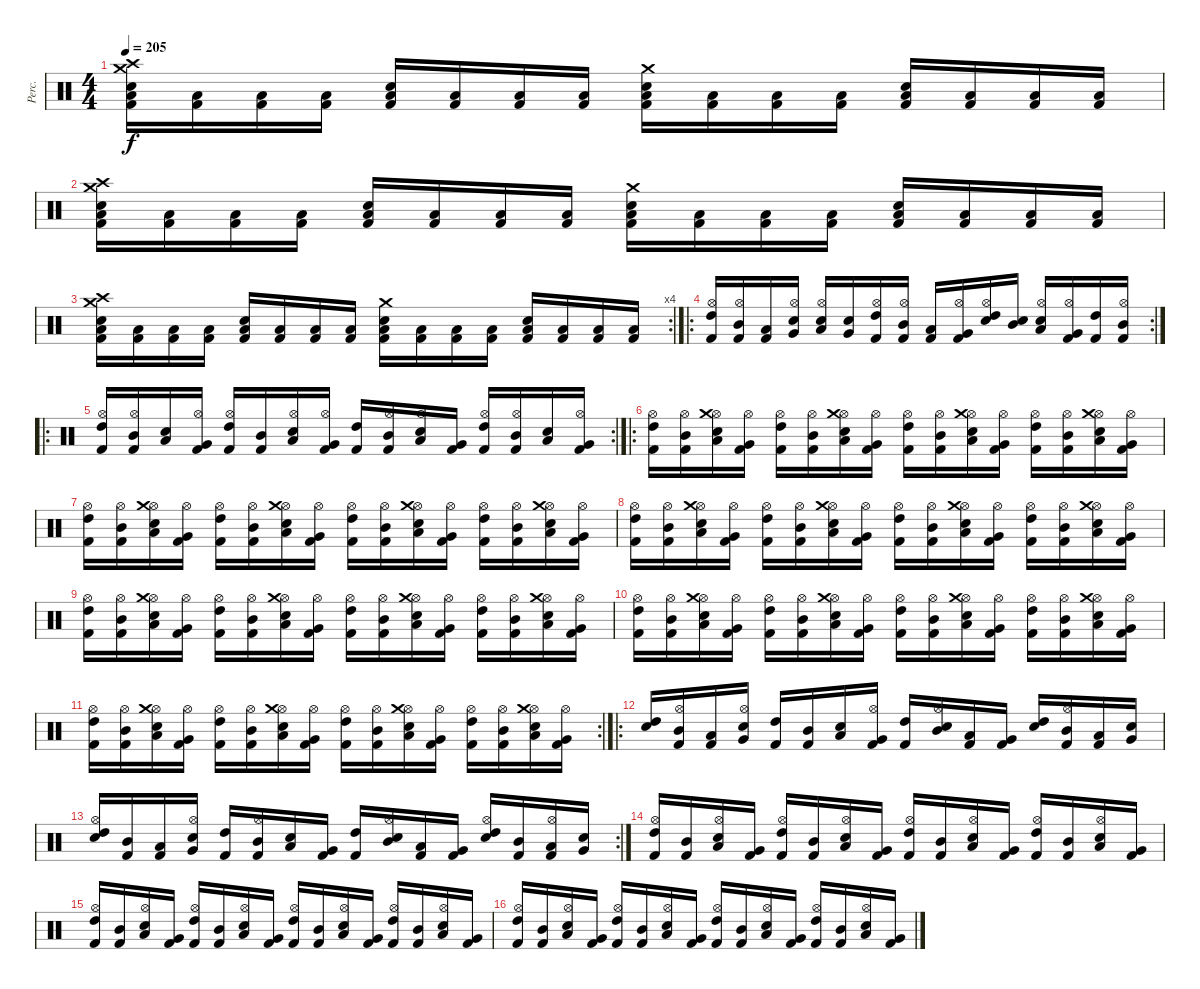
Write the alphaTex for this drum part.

\track ("Perc." "Perc.") {instrument percussion}
\staff {score}
\articulation defaults
\ts (4 4)
\tempo 205
\clef neutral
\ks c
("Crash high (hit)" "Crash medium (hit)" "Snare (hit) 2" "Low Floor Tom (hit)" "Kick (hit) 2").16{dy f} ("Low Floor Tom (hit)" "Kick (hit) 2").16 ("Low Floor Tom (hit)" "Kick (hit) 2").16 ("Low Floor Tom (hit)" "Kick (hit) 2").16 ("Snare (hit) 2" "Low Floor Tom (hit)" "Kick (hit) 2").16 ("Low Floor Tom (hit)" "Kick (hit) 2").16 ("Low Floor Tom (hit)" "Kick (hit) 2").16 ("Low Floor Tom (hit)" "Kick (hit) 2").16 ("Crash medium (hit)" "Snare (hit) 2" "Low Floor Tom (hit)" "Kick (hit) 2").16 ("Low Floor Tom (hit)" "Kick (hit) 2").16 ("Low Floor Tom (hit)" "Kick (hit) 2").16 ("Low Floor Tom (hit)" "Kick (hit) 2").16 ("Snare (hit) 2" "Low Floor Tom (hit)" "Kick (hit) 2").16 ("Low Floor Tom (hit)" "Kick (hit) 2").16 ("Low Floor Tom (hit)" "Kick (hit) 2").16 ("Low Floor Tom (hit)" "Kick (hit) 2").16 |
("Crash high (hit)" "Crash medium (hit)" "Snare (hit) 2" "Low Floor Tom (hit)" "Kick (hit) 2").16 ("Low Floor Tom (hit)" "Kick (hit) 2").16 ("Low Floor Tom (hit)" "Kick (hit) 2").16 ("Low Floor Tom (hit)" "Kick (hit) 2").16 ("Snare (hit) 2" "Low Floor Tom (hit)" "Kick (hit) 2").16 ("Low Floor Tom (hit)" "Kick (hit) 2").16 ("Low Floor Tom (hit)" "Kick (hit) 2").16 ("Low Floor Tom (hit)" "Kick (hit) 2").16 ("Crash medium (hit)" "Snare (hit) 2" "Low Floor Tom (hit)" "Kick (hit) 2").16 ("Low Floor Tom (hit)" "Kick (hit) 2").16 ("Low Floor Tom (hit)" "Kick (hit) 2").16 ("Low Floor Tom (hit)" "Kick (hit) 2").16 ("Snare (hit) 2" "Low Floor Tom (hit)" "Kick (hit) 2").16 ("Low Floor Tom (hit)" "Kick (hit) 2").16 ("Low Floor Tom (hit)" "Kick (hit) 2").16 ("Low Floor Tom (hit)" "Kick (hit) 2").16 |
\rc 4
("Crash high (hit)" "Crash medium (hit)" "Snare (hit) 2" "Low Floor Tom (hit)" "Kick (hit) 2").16 ("Low Floor Tom (hit)" "Kick (hit) 2").16 ("Low Floor Tom (hit)" "Kick (hit) 2").16 ("Low Floor Tom (hit)" "Kick (hit) 2").16 ("Snare (hit) 2" "Low Floor Tom (hit)" "Kick (hit) 2").16 ("Low Floor Tom (hit)" "Kick (hit) 2").16 ("Low Floor Tom (hit)" "Kick (hit) 2").16 ("Low Floor Tom (hit)" "Kick (hit) 2").16 ("Crash medium (hit)" "Snare (hit) 2" "Low Floor Tom (hit)" "Kick (hit) 2").16 ("Low Floor Tom (hit)" "Kick (hit) 2").16 ("Low Floor Tom (hit)" "Kick (hit) 2").16 ("Low Floor Tom (hit)" "Kick (hit) 2").16 ("Snare (hit) 2" "Low Floor Tom (hit)" "Kick (hit) 2").16 ("Low Floor Tom (hit)" "Kick (hit) 2").16 ("Low Floor Tom (hit)" "Kick (hit) 2").16 ("Low Floor Tom (hit)" "Kick (hit) 2").16 |
\ro
\rc 2
("Hi-Hat (open)" "High Tom (hit)" "Kick (hit) 2").16 ("Hi-Hat (open)" "Mid Tom (hit)" "Kick (hit) 2").16 ("Low Tom (hit)" "Kick (hit) 2").16 ("Hi-Hat (open)" "Very Low Tom (hit)" "Snare (hit) 2").16 ("Hi-Hat (open)" "Low Tom (hit)" "Snare (hit) 2").16 ("Very Low Tom (hit)" "Snare (hit) 2").16 ("Hi-Hat (open)" "High Tom (hit)" "Kick (hit) 2").16 ("Hi-Hat (open)" "Mid Tom (hit)" "Kick (hit) 2").16 ("Low Tom (hit)" "Kick (hit) 2").16 ("Hi-Hat (open)" "Very Low Tom (hit)" "Kick (hit) 2").16 ("Hi-Hat (open)" "High Tom (hit)" "Snare (hit) 2").16 ("Mid Tom (hit)" "Snare (hit) 2").16 ("Hi-Hat (open)" "Low Tom (hit)" "Snare (hit) 2").16 ("Hi-Hat (open)" "Very Low Tom (hit)" "Kick (hit) 2").16 ("High Tom (hit)" "Kick (hit) 2").16 ("Hi-Hat (open)" "Mid Tom (hit)" "Kick (hit) 2").16 |
\ro
\rc 2
("Hi-Hat (open)" "High Tom (hit)" "Kick (hit) 2").16 ("Hi-Hat (open)" "Mid Tom (hit)" "Kick (hit) 2").16 ("Low Tom (hit)" "Snare (hit) 2").16 ("Hi-Hat (open)" "Very Low Tom (hit)" "Kick (hit) 2").16 ("Hi-Hat (open)" "High Tom (hit)" "Kick (hit) 2").16 ("Mid Tom (hit)" "Kick (hit) 2").16 ("Hi-Hat (open)" "Low Tom (hit)" "Snare (hit) 2").16 ("Hi-Hat (open)" "Very Low Tom (hit)" "Kick (hit) 2").16 ("High Tom (hit)" "Kick (hit) 2").16 ("Hi-Hat (open)" "Mid Tom (hit)" "Kick (hit) 2").16 ("Hi-Hat (open)" "Low Tom (hit)" "Snare (hit) 2").16 ("Very Low Tom (hit)" "Kick (hit) 2").16 ("Hi-Hat (open)" "High Tom (hit)" "Kick (hit) 2").16 ("Hi-Hat (open)" "Mid Tom (hit)" "Kick (hit) 2").16 ("Low Tom (hit)" "Snare (hit) 2").16 ("Hi-Hat (open)" "Very Low Tom (hit)" "Kick (hit) 2").16 |
\ro
("Hi-Hat (open)" "High Tom (hit)" "Kick (hit) 2").16 ("Hi-Hat (open)" "Mid Tom (hit)" "Kick (hit) 2").16 ("Hi-Hat (open)" "Crash medium (hit)" "Low Tom (hit)" "Snare (hit) 2").16 ("Hi-Hat (open)" "Very Low Tom (hit)" "Kick (hit) 2").16 ("Hi-Hat (open)" "High Tom (hit)" "Kick (hit) 2").16 ("Hi-Hat (open)" "Mid Tom (hit)" "Kick (hit) 2").16 ("Hi-Hat (open)" "Crash medium (hit)" "Low Tom (hit)" "Snare (hit) 2").16 ("Hi-Hat (open)" "Very Low Tom (hit)" "Kick (hit) 2").16 ("Hi-Hat (open)" "High Tom (hit)" "Kick (hit) 2").16 ("Hi-Hat (open)" "Mid Tom (hit)" "Kick (hit) 2").16 ("Hi-Hat (open)" "Crash medium (hit)" "Low Tom (hit)" "Snare (hit) 2").16 ("Hi-Hat (open)" "Very Low Tom (hit)" "Kick (hit) 2").16 ("Hi-Hat (open)" "High Tom (hit)" "Kick (hit) 2").16 ("Hi-Hat (open)" "Mid Tom (hit)" "Kick (hit) 2").16 ("Hi-Hat (open)" "Crash medium (hit)" "Low Tom (hit)" "Snare (hit) 2").16 ("Hi-Hat (open)" "Very Low Tom (hit)" "Kick (hit) 2").16 |
("Hi-Hat (open)" "High Tom (hit)" "Kick (hit) 2").16 ("Hi-Hat (open)" "Mid Tom (hit)" "Kick (hit) 2").16 ("Hi-Hat (open)" "Crash medium (hit)" "Low Tom (hit)" "Snare (hit) 2").16 ("Hi-Hat (open)" "Very Low Tom (hit)" "Kick (hit) 2").16 ("Hi-Hat (open)" "High Tom (hit)" "Kick (hit) 2").16 ("Hi-Hat (open)" "Mid Tom (hit)" "Kick (hit) 2").16 ("Hi-Hat (open)" "Crash medium (hit)" "Low Tom (hit)" "Snare (hit) 2").16 ("Hi-Hat (open)" "Very Low Tom (hit)" "Kick (hit) 2").16 ("Hi-Hat (open)" "High Tom (hit)" "Kick (hit) 2").16 ("Hi-Hat (open)" "Mid Tom (hit)" "Kick (hit) 2").16 ("Hi-Hat (open)" "Crash medium (hit)" "Low Tom (hit)" "Snare (hit) 2").16 ("Hi-Hat (open)" "Very Low Tom (hit)" "Kick (hit) 2").16 ("Hi-Hat (open)" "High Tom (hit)" "Kick (hit) 2").16 ("Hi-Hat (open)" "Mid Tom (hit)" "Kick (hit) 2").16 ("Hi-Hat (open)" "Crash medium (hit)" "Low Tom (hit)" "Snare (hit) 2").16 ("Hi-Hat (open)" "Very Low Tom (hit)" "Kick (hit) 2").16 |
("Hi-Hat (open)" "High Tom (hit)" "Kick (hit) 2").16 ("Hi-Hat (open)" "Mid Tom (hit)" "Kick (hit) 2").16 ("Hi-Hat (open)" "Crash medium (hit)" "Low Tom (hit)" "Snare (hit) 2").16 ("Hi-Hat (open)" "Very Low Tom (hit)" "Kick (hit) 2").16 ("Hi-Hat (open)" "High Tom (hit)" "Kick (hit) 2").16 ("Hi-Hat (open)" "Mid Tom (hit)" "Kick (hit) 2").16 ("Hi-Hat (open)" "Crash medium (hit)" "Low Tom (hit)" "Snare (hit) 2").16 ("Hi-Hat (open)" "Very Low Tom (hit)" "Kick (hit) 2").16 ("Hi-Hat (open)" "High Tom (hit)" "Kick (hit) 2").16 ("Hi-Hat (open)" "Mid Tom (hit)" "Kick (hit) 2").16 ("Hi-Hat (open)" "Crash medium (hit)" "Low Tom (hit)" "Snare (hit) 2").16 ("Hi-Hat (open)" "Very Low Tom (hit)" "Kick (hit) 2").16 ("Hi-Hat (open)" "High Tom (hit)" "Kick (hit) 2").16 ("Hi-Hat (open)" "Mid Tom (hit)" "Kick (hit) 2").16 ("Hi-Hat (open)" "Crash medium (hit)" "Low Tom (hit)" "Snare (hit) 2").16 ("Hi-Hat (open)" "Very Low Tom (hit)" "Kick (hit) 2").16 |
("Hi-Hat (open)" "High Tom (hit)" "Kick (hit) 2").16 ("Hi-Hat (open)" "Mid Tom (hit)" "Kick (hit) 2").16 ("Hi-Hat (open)" "Crash medium (hit)" "Low Tom (hit)" "Snare (hit) 2").16 ("Hi-Hat (open)" "Very Low Tom (hit)" "Kick (hit) 2").16 ("Hi-Hat (open)" "High Tom (hit)" "Kick (hit) 2").16 ("Hi-Hat (open)" "Mid Tom (hit)" "Kick (hit) 2").16 ("Hi-Hat (open)" "Crash medium (hit)" "Low Tom (hit)" "Snare (hit) 2").16 ("Hi-Hat (open)" "Very Low Tom (hit)" "Kick (hit) 2").16 ("Hi-Hat (open)" "High Tom (hit)" "Kick (hit) 2").16 ("Hi-Hat (open)" "Mid Tom (hit)" "Kick (hit) 2").16 ("Hi-Hat (open)" "Crash medium (hit)" "Low Tom (hit)" "Snare (hit) 2").16 ("Hi-Hat (open)" "Very Low Tom (hit)" "Kick (hit) 2").16 ("Hi-Hat (open)" "High Tom (hit)" "Kick (hit) 2").16 ("Hi-Hat (open)" "Mid Tom (hit)" "Kick (hit) 2").16 ("Hi-Hat (open)" "Crash medium (hit)" "Low Tom (hit)" "Snare (hit) 2").16 ("Hi-Hat (open)" "Very Low Tom (hit)" "Kick (hit) 2").16 |
("Hi-Hat (open)" "High Tom (hit)" "Kick (hit) 2").16 ("Hi-Hat (open)" "Mid Tom (hit)" "Kick (hit) 2").16 ("Hi-Hat (open)" "Crash medium (hit)" "Low Tom (hit)" "Snare (hit) 2").16 ("Hi-Hat (open)" "Very Low Tom (hit)" "Kick (hit) 2").16 ("Hi-Hat (open)" "High Tom (hit)" "Kick (hit) 2").16 ("Hi-Hat (open)" "Mid Tom (hit)" "Kick (hit) 2").16 ("Hi-Hat (open)" "Crash medium (hit)" "Low Tom (hit)" "Snare (hit) 2").16 ("Hi-Hat (open)" "Very Low Tom (hit)" "Kick (hit) 2").16 ("Hi-Hat (open)" "High Tom (hit)" "Kick (hit) 2").16 ("Hi-Hat (open)" "Mid Tom (hit)" "Kick (hit) 2").16 ("Hi-Hat (open)" "Crash medium (hit)" "Low Tom (hit)" "Snare (hit) 2").16 ("Hi-Hat (open)" "Very Low Tom (hit)" "Kick (hit) 2").16 ("Hi-Hat (open)" "High Tom (hit)" "Kick (hit) 2").16 ("Hi-Hat (open)" "Mid Tom (hit)" "Kick (hit) 2").16 ("Hi-Hat (open)" "Crash medium (hit)" "Low Tom (hit)" "Snare (hit) 2").16 ("Hi-Hat (open)" "Very Low Tom (hit)" "Kick (hit) 2").16 |
\rc 2
("Hi-Hat (open)" "High Tom (hit)" "Kick (hit) 2").16 ("Hi-Hat (open)" "Mid Tom (hit)" "Kick (hit) 2").16 ("Hi-Hat (open)" "Crash medium (hit)" "Low Tom (hit)" "Snare (hit) 2").16 ("Hi-Hat (open)" "Very Low Tom (hit)" "Kick (hit) 2").16 ("Hi-Hat (open)" "High Tom (hit)" "Kick (hit) 2").16 ("Hi-Hat (open)" "Mid Tom (hit)" "Kick (hit) 2").16 ("Hi-Hat (open)" "Crash medium (hit)" "Low Tom (hit)" "Snare (hit) 2").16 ("Hi-Hat (open)" "Very Low Tom (hit)" "Kick (hit) 2").16 ("Hi-Hat (open)" "High Tom (hit)" "Kick (hit) 2").16 ("Hi-Hat (open)" "Mid Tom (hit)" "Kick (hit) 2").16 ("Hi-Hat (open)" "Crash medium (hit)" "Low Tom (hit)" "Snare (hit) 2").16 ("Hi-Hat (open)" "Very Low Tom (hit)" "Kick (hit) 2").16 ("Hi-Hat (open)" "High Tom (hit)" "Kick (hit) 2").16 ("Hi-Hat (open)" "Mid Tom (hit)" "Kick (hit) 2").16 ("Hi-Hat (open)" "Crash medium (hit)" "Low Tom (hit)" "Snare (hit) 2").16 ("Hi-Hat (open)" "Very Low Tom (hit)" "Kick (hit) 2").16 |
\ro
("High Tom (hit)" "Snare (hit) 2").16 ("Hi-Hat (open)" "Mid Tom (hit)" "Kick (hit) 2").16 ("Low Tom (hit)" "Kick (hit) 2").16 ("Hi-Hat (open)" "Very Low Tom (hit)" "Snare (hit) 2").16 ("High Tom (hit)" "Kick (hit) 2").16 ("Mid Tom (hit)" "Kick (hit) 2").16 ("Low Tom (hit)" "Snare (hit) 2").16 ("Hi-Hat (open)" "Very Low Tom (hit)" "Kick (hit) 2").16 ("High Tom (hit)" "Kick (hit) 2").16 ("Hi-Hat (open)" "Mid Tom (hit)" "Snare (hit) 2").16 ("Low Tom (hit)" "Kick (hit) 2").16 ("Very Low Tom (hit)" "Kick (hit) 2").16 ("High Tom (hit)" "Snare (hit) 2").16 ("Hi-Hat (open)" "Mid Tom (hit)" "Kick (hit) 2").16 ("Low Tom (hit)" "Kick (hit) 2").16 ("Very Low Tom (hit)" "Snare (hit) 2").16 |
\rc 2
("Hi-Hat (open)" "High Tom (hit)" "Snare (hit) 2").16 ("Mid Tom (hit)" "Kick (hit) 2").16 ("Low Tom (hit)" "Kick (hit) 2").16 ("Hi-Hat (open)" "Very Low Tom (hit)" "Snare (hit) 2").16 ("High Tom (hit)" "Kick (hit) 2").16 ("Hi-Hat (open)" "Mid Tom (hit)" "Kick (hit) 2").16 ("Low Tom (hit)" "Snare (hit) 2").16 ("Very Low Tom (hit)" "Kick (hit) 2").16 ("High Tom (hit)" "Kick (hit) 2").16 ("Hi-Hat (open)" "Mid Tom (hit)" "Snare (hit) 2").16 ("Low Tom (hit)" "Kick (hit) 2").16 ("Very Low Tom (hit)" "Kick (hit) 2").16 ("Hi-Hat (open)" "High Tom (hit)" "Snare (hit) 2").16 ("Mid Tom (hit)" "Kick (hit) 2").16 ("Hi-Hat (open)" "Low Tom (hit)" "Kick (hit) 2").16 ("Very Low Tom (hit)" "Snare (hit) 2").16 |
("Hi-Hat (open)" "High Tom (hit)" "Kick (hit) 2").16 ("Mid Tom (hit)" "Kick (hit) 2").16 ("Hi-Hat (open)" "Low Tom (hit)" "Snare (hit) 2").16 ("Very Low Tom (hit)" "Kick (hit) 2").16 ("Hi-Hat (open)" "High Tom (hit)" "Kick (hit) 2").16 ("Mid Tom (hit)" "Kick (hit) 2").16 ("Hi-Hat (open)" "Low Tom (hit)" "Snare (hit) 2").16 ("Very Low Tom (hit)" "Kick (hit) 2").16 ("Hi-Hat (open)" "High Tom (hit)" "Kick (hit) 2").16 ("Mid Tom (hit)" "Kick (hit) 2").16 ("Hi-Hat (open)" "Low Tom (hit)" "Snare (hit) 2").16 ("Very Low Tom (hit)" "Kick (hit) 2").16 ("Hi-Hat (open)" "High Tom (hit)" "Kick (hit) 2").16 ("Mid Tom (hit)" "Kick (hit) 2").16 ("Hi-Hat (open)" "Low Tom (hit)" "Snare (hit) 2").16 ("Very Low Tom (hit)" "Kick (hit) 2").16 |
("Hi-Hat (open)" "High Tom (hit)" "Kick (hit) 2").16 ("Mid Tom (hit)" "Kick (hit) 2").16 ("Hi-Hat (open)" "Low Tom (hit)" "Snare (hit) 2").16 ("Very Low Tom (hit)" "Kick (hit) 2").16 ("Hi-Hat (open)" "High Tom (hit)" "Kick (hit) 2").16 ("Mid Tom (hit)" "Kick (hit) 2").16 ("Hi-Hat (open)" "Low Tom (hit)" "Snare (hit) 2").16 ("Very Low Tom (hit)" "Kick (hit) 2").16 ("Hi-Hat (open)" "High Tom (hit)" "Kick (hit) 2").16 ("Mid Tom (hit)" "Kick (hit) 2").16 ("Hi-Hat (open)" "Low Tom (hit)" "Snare (hit) 2").16 ("Very Low Tom (hit)" "Kick (hit) 2").16 ("Hi-Hat (open)" "High Tom (hit)" "Kick (hit) 2").16 ("Mid Tom (hit)" "Kick (hit) 2").16 ("Hi-Hat (open)" "Low Tom (hit)" "Snare (hit) 2").16 ("Very Low Tom (hit)" "Kick (hit) 2").16 |
("Hi-Hat (open)" "High Tom (hit)" "Kick (hit) 2").16 ("Mid Tom (hit)" "Kick (hit) 2").16 ("Hi-Hat (open)" "Low Tom (hit)" "Snare (hit) 2").16 ("Very Low Tom (hit)" "Kick (hit) 2").16 ("Hi-Hat (open)" "High Tom (hit)" "Kick (hit) 2").16 ("Mid Tom (hit)" "Kick (hit) 2").16 ("Hi-Hat (open)" "Low Tom (hit)" "Snare (hit) 2").16 ("Very Low Tom (hit)" "Kick (hit) 2").16 ("Hi-Hat (open)" "High Tom (hit)" "Kick (hit) 2").16 ("Mid Tom (hit)" "Kick (hit) 2").16 ("Hi-Hat (open)" "Low Tom (hit)" "Snare (hit) 2").16 ("Very Low Tom (hit)" "Kick (hit) 2").16 ("Hi-Hat (open)" "High Tom (hit)" "Kick (hit) 2").16 ("Mid Tom (hit)" "Kick (hit) 2").16 ("Hi-Hat (open)" "Low Tom (hit)" "Snare (hit) 2").16 ("Very Low Tom (hit)" "Kick (hit) 2").16
